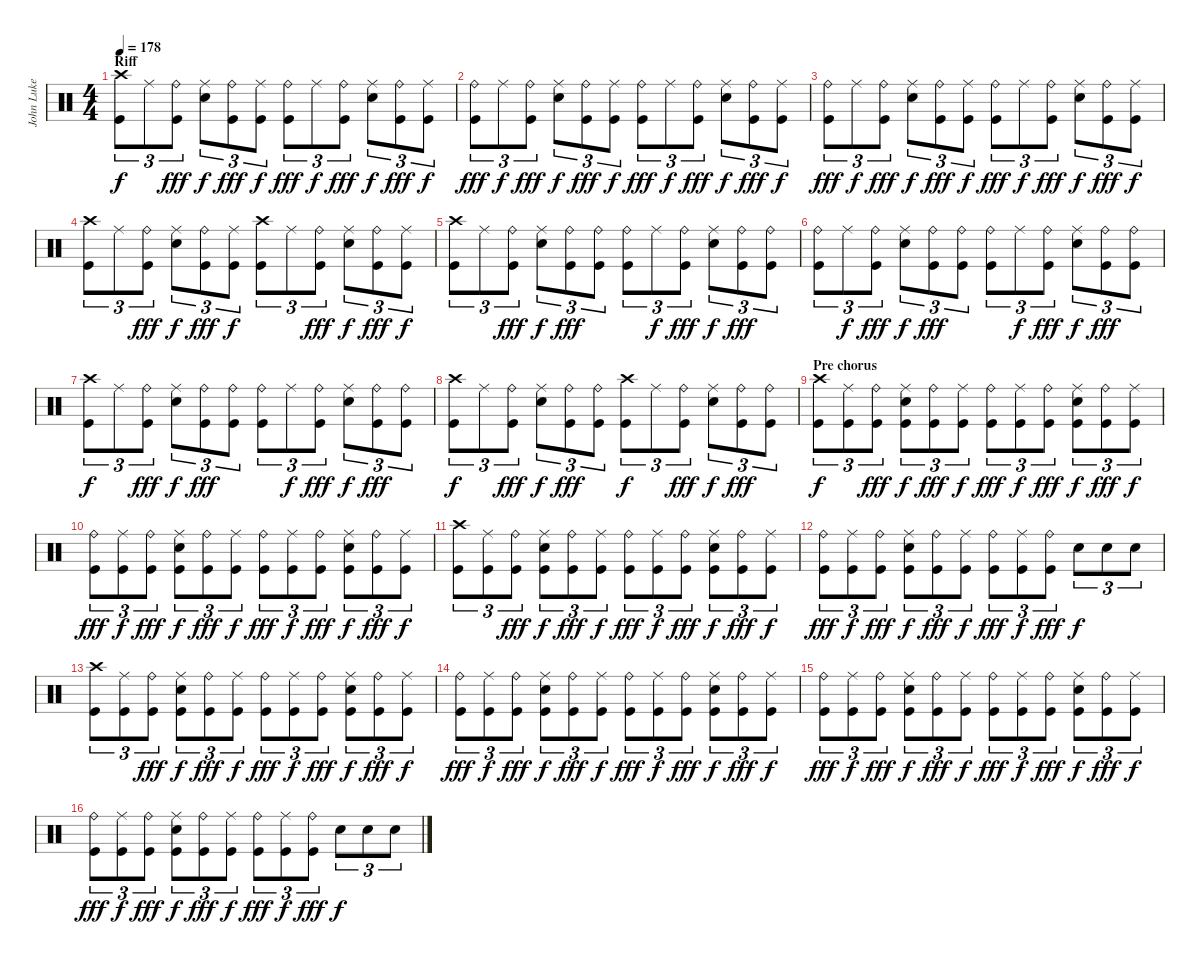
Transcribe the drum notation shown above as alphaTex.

\track ("John Luke (Drums)" "John Luke ") {instrument percussion}
\staff {score}
\articulation defaults
\ts (4 4)
\section ("" "Riff")
\tempo 178
\clef neutral
\ks c
("Crash high (hit)" "Kick (hit)").8{tu (3 2) dy f} "Ride (middle)".8{tu (3 2)} ("Ride (bell)" "Kick (hit)").8{tu (3 2) dy fff} ("Ride (middle)" "Electric Snare (hit)").8{tu (3 2) dy f} ("Ride (bell)" "Kick (hit)").8{tu (3 2) dy fff} ("Ride (middle)" "Kick (hit)").8{tu (3 2) dy f} ("Ride (bell)" "Kick (hit)").8{tu (3 2) dy fff} "Ride (middle)".8{tu (3 2) dy f} ("Ride (bell)" "Kick (hit)").8{tu (3 2) dy fff} ("Ride (middle)" "Electric Snare (hit)").8{tu (3 2) dy f} ("Ride (bell)" "Kick (hit)").8{tu (3 2) dy fff} ("Ride (middle)" "Kick (hit)").8{tu (3 2) dy f} |
("Ride (bell)" "Kick (hit)").8{tu (3 2) dy fff} "Ride (middle)".8{tu (3 2) dy f} ("Ride (bell)" "Kick (hit)").8{tu (3 2) dy fff} ("Ride (middle)" "Electric Snare (hit)").8{tu (3 2) dy f} ("Ride (bell)" "Kick (hit)").8{tu (3 2) dy fff} ("Ride (middle)" "Kick (hit)").8{tu (3 2) dy f} ("Ride (bell)" "Kick (hit)").8{tu (3 2) dy fff} "Ride (middle)".8{tu (3 2) dy f} ("Ride (bell)" "Kick (hit)").8{tu (3 2) dy fff} ("Ride (middle)" "Electric Snare (hit)").8{tu (3 2) dy f} ("Ride (bell)" "Kick (hit)").8{tu (3 2) dy fff} ("Ride (middle)" "Kick (hit)").8{tu (3 2) dy f} |
("Ride (bell)" "Kick (hit)").8{tu (3 2) dy fff} "Ride (middle)".8{tu (3 2) dy f} ("Ride (bell)" "Kick (hit)").8{tu (3 2) dy fff} ("Ride (middle)" "Electric Snare (hit)").8{tu (3 2) dy f} ("Ride (bell)" "Kick (hit)").8{tu (3 2) dy fff} ("Ride (middle)" "Kick (hit)").8{tu (3 2) dy f} ("Ride (bell)" "Kick (hit)").8{tu (3 2) dy fff} "Ride (middle)".8{tu (3 2) dy f} ("Ride (bell)" "Kick (hit)").8{tu (3 2) dy fff} ("Ride (middle)" "Electric Snare (hit)").8{tu (3 2) dy f} ("Ride (bell)" "Kick (hit)").8{tu (3 2) dy fff} ("Ride (middle)" "Kick (hit)").8{tu (3 2) dy f} |
("Crash high (hit)" "Kick (hit)").8{tu (3 2)} "Ride (middle)".8{tu (3 2)} ("Ride (bell)" "Kick (hit)").8{tu (3 2) dy fff} ("Ride (middle)" "Electric Snare (hit)").8{tu (3 2) dy f} ("Ride (bell)" "Kick (hit)").8{tu (3 2) dy fff} ("Ride (middle)" "Kick (hit)").8{tu (3 2) dy f} ("Crash high (hit)" "Kick (hit)").8{tu (3 2)} "Ride (middle)".8{tu (3 2)} ("Ride (bell)" "Kick (hit)").8{tu (3 2) dy fff} ("Ride (middle)" "Electric Snare (hit)").8{tu (3 2) dy f} ("Ride (bell)" "Kick (hit)").8{tu (3 2) dy fff} ("Ride (middle)" "Kick (hit)").8{tu (3 2) dy f} |
("Crash high (hit)" "Kick (hit)").8{tu (3 2)} "Ride (middle)".8{tu (3 2)} ("Ride (bell)" "Kick (hit)").8{tu (3 2) dy fff} ("Ride (middle)" "Electric Snare (hit)").8{tu (3 2) dy f} ("Ride (bell)" "Kick (hit)").8{tu (3 2) dy fff} ("Ride (bell)" "Kick (hit)").8{tu (3 2)} ("Ride (bell)" "Kick (hit)").8{tu (3 2)} "Ride (middle)".8{tu (3 2) dy f} ("Ride (bell)" "Kick (hit)").8{tu (3 2) dy fff} ("Ride (middle)" "Electric Snare (hit)").8{tu (3 2) dy f} ("Ride (bell)" "Kick (hit)").8{tu (3 2) dy fff} ("Ride (bell)" "Kick (hit)").8{tu (3 2)} |
("Ride (bell)" "Kick (hit)").8{tu (3 2)} "Ride (middle)".8{tu (3 2) dy f} ("Ride (bell)" "Kick (hit)").8{tu (3 2) dy fff} ("Ride (middle)" "Electric Snare (hit)").8{tu (3 2) dy f} ("Ride (bell)" "Kick (hit)").8{tu (3 2) dy fff} ("Ride (bell)" "Kick (hit)").8{tu (3 2)} ("Ride (bell)" "Kick (hit)").8{tu (3 2)} "Ride (middle)".8{tu (3 2) dy f} ("Ride (bell)" "Kick (hit)").8{tu (3 2) dy fff} ("Ride (middle)" "Electric Snare (hit)").8{tu (3 2) dy f} ("Ride (bell)" "Kick (hit)").8{tu (3 2) dy fff} ("Ride (bell)" "Kick (hit)").8{tu (3 2)} |
("Crash high (hit)" "Kick (hit)").8{tu (3 2) dy f} "Ride (middle)".8{tu (3 2)} ("Ride (bell)" "Kick (hit)").8{tu (3 2) dy fff} ("Ride (middle)" "Electric Snare (hit)").8{tu (3 2) dy f} ("Ride (bell)" "Kick (hit)").8{tu (3 2) dy fff} ("Ride (bell)" "Kick (hit)").8{tu (3 2)} ("Ride (bell)" "Kick (hit)").8{tu (3 2)} "Ride (middle)".8{tu (3 2) dy f} ("Ride (bell)" "Kick (hit)").8{tu (3 2) dy fff} ("Ride (middle)" "Electric Snare (hit)").8{tu (3 2) dy f} ("Ride (bell)" "Kick (hit)").8{tu (3 2) dy fff} ("Ride (bell)" "Kick (hit)").8{tu (3 2)} |
("Crash high (hit)" "Kick (hit)").8{tu (3 2) dy f} "Ride (middle)".8{tu (3 2)} ("Ride (bell)" "Kick (hit)").8{tu (3 2) dy fff} ("Ride (middle)" "Electric Snare (hit)").8{tu (3 2) dy f} ("Ride (bell)" "Kick (hit)").8{tu (3 2) dy fff} ("Ride (bell)" "Kick (hit)").8{tu (3 2)} ("Crash high (hit)" "Kick (hit)").8{tu (3 2) dy f} "Ride (middle)".8{tu (3 2)} ("Ride (bell)" "Kick (hit)").8{tu (3 2) dy fff} ("Ride (middle)" "Electric Snare (hit)").8{tu (3 2) dy f} ("Ride (bell)" "Kick (hit)").8{tu (3 2) dy fff} ("Ride (bell)" "Kick (hit)").8{tu (3 2)} |
\section ("" "Pre chorus")
("Crash high (hit)" "Kick (hit)").8{tu (3 2) dy f} ("Ride (middle)" "Kick (hit)").8{tu (3 2)} ("Ride (bell)" "Kick (hit)").8{tu (3 2) dy fff} ("Ride (middle)" "Electric Snare (hit)" "Kick (hit)").8{tu (3 2) dy f} ("Ride (bell)" "Kick (hit)").8{tu (3 2) dy fff} ("Ride (middle)" "Kick (hit)").8{tu (3 2) dy f} ("Ride (bell)" "Kick (hit)").8{tu (3 2) dy fff} ("Ride (middle)" "Kick (hit)").8{tu (3 2) dy f} ("Ride (bell)" "Kick (hit)").8{tu (3 2) dy fff} ("Ride (middle)" "Electric Snare (hit)" "Kick (hit)").8{tu (3 2) dy f} ("Ride (bell)" "Kick (hit)").8{tu (3 2) dy fff} ("Ride (middle)" "Kick (hit)").8{tu (3 2) dy f} |
("Ride (bell)" "Kick (hit)").8{tu (3 2) dy fff} ("Ride (middle)" "Kick (hit)").8{tu (3 2) dy f} ("Ride (bell)" "Kick (hit)").8{tu (3 2) dy fff} ("Ride (middle)" "Electric Snare (hit)" "Kick (hit)").8{tu (3 2) dy f} ("Ride (bell)" "Kick (hit)").8{tu (3 2) dy fff} ("Ride (middle)" "Kick (hit)").8{tu (3 2) dy f} ("Ride (bell)" "Kick (hit)").8{tu (3 2) dy fff} ("Ride (middle)" "Kick (hit)").8{tu (3 2) dy f} ("Ride (bell)" "Kick (hit)").8{tu (3 2) dy fff} ("Ride (middle)" "Electric Snare (hit)" "Kick (hit)").8{tu (3 2) dy f} ("Ride (bell)" "Kick (hit)").8{tu (3 2) dy fff} ("Ride (middle)" "Kick (hit)").8{tu (3 2) dy f} |
("Crash high (hit)" "Kick (hit)").8{tu (3 2)} ("Ride (middle)" "Kick (hit)").8{tu (3 2)} ("Ride (bell)" "Kick (hit)").8{tu (3 2) dy fff} ("Ride (middle)" "Electric Snare (hit)" "Kick (hit)").8{tu (3 2) dy f} ("Ride (bell)" "Kick (hit)").8{tu (3 2) dy fff} ("Ride (middle)" "Kick (hit)").8{tu (3 2) dy f} ("Ride (bell)" "Kick (hit)").8{tu (3 2) dy fff} ("Ride (middle)" "Kick (hit)").8{tu (3 2) dy f} ("Ride (bell)" "Kick (hit)").8{tu (3 2) dy fff} ("Ride (middle)" "Electric Snare (hit)" "Kick (hit)").8{tu (3 2) dy f} ("Ride (bell)" "Kick (hit)").8{tu (3 2) dy fff} ("Ride (middle)" "Kick (hit)").8{tu (3 2) dy f} |
("Ride (bell)" "Kick (hit)").8{tu (3 2) dy fff} ("Ride (middle)" "Kick (hit)").8{tu (3 2) dy f} ("Ride (bell)" "Kick (hit)").8{tu (3 2) dy fff} ("Ride (middle)" "Electric Snare (hit)" "Kick (hit)").8{tu (3 2) dy f} ("Ride (bell)" "Kick (hit)").8{tu (3 2) dy fff} ("Ride (middle)" "Kick (hit)").8{tu (3 2) dy f} ("Ride (bell)" "Kick (hit)").8{tu (3 2) dy fff} ("Ride (middle)" "Kick (hit)").8{tu (3 2) dy f} ("Ride (bell)" "Kick (hit)").8{tu (3 2) dy fff} "Electric Snare (hit)".8{tu (3 2) dy f} "Electric Snare (hit)".8{tu (3 2)} "Electric Snare (hit)".8{tu (3 2)} |
("Crash high (hit)" "Kick (hit)").8{tu (3 2)} ("Ride (middle)" "Kick (hit)").8{tu (3 2)} ("Ride (bell)" "Kick (hit)").8{tu (3 2) dy fff} ("Ride (middle)" "Electric Snare (hit)" "Kick (hit)").8{tu (3 2) dy f} ("Ride (bell)" "Kick (hit)").8{tu (3 2) dy fff} ("Ride (middle)" "Kick (hit)").8{tu (3 2) dy f} ("Ride (bell)" "Kick (hit)").8{tu (3 2) dy fff} ("Ride (middle)" "Kick (hit)").8{tu (3 2) dy f} ("Ride (bell)" "Kick (hit)").8{tu (3 2) dy fff} ("Ride (middle)" "Electric Snare (hit)" "Kick (hit)").8{tu (3 2) dy f} ("Ride (bell)" "Kick (hit)").8{tu (3 2) dy fff} ("Ride (middle)" "Kick (hit)").8{tu (3 2) dy f} |
("Ride (bell)" "Kick (hit)").8{tu (3 2) dy fff} ("Ride (middle)" "Kick (hit)").8{tu (3 2) dy f} ("Ride (bell)" "Kick (hit)").8{tu (3 2) dy fff} ("Ride (middle)" "Electric Snare (hit)" "Kick (hit)").8{tu (3 2) dy f} ("Ride (bell)" "Kick (hit)").8{tu (3 2) dy fff} ("Ride (middle)" "Kick (hit)").8{tu (3 2) dy f} ("Ride (bell)" "Kick (hit)").8{tu (3 2) dy fff} ("Ride (middle)" "Kick (hit)").8{tu (3 2) dy f} ("Ride (bell)" "Kick (hit)").8{tu (3 2) dy fff} ("Ride (middle)" "Electric Snare (hit)" "Kick (hit)").8{tu (3 2) dy f} ("Ride (bell)" "Kick (hit)").8{tu (3 2) dy fff} ("Ride (middle)" "Kick (hit)").8{tu (3 2) dy f} |
("Ride (bell)" "Kick (hit)").8{tu (3 2) dy fff} ("Ride (middle)" "Kick (hit)").8{tu (3 2) dy f} ("Ride (bell)" "Kick (hit)").8{tu (3 2) dy fff} ("Ride (middle)" "Electric Snare (hit)" "Kick (hit)").8{tu (3 2) dy f} ("Ride (bell)" "Kick (hit)").8{tu (3 2) dy fff} ("Ride (middle)" "Kick (hit)").8{tu (3 2) dy f} ("Ride (bell)" "Kick (hit)").8{tu (3 2) dy fff} ("Ride (middle)" "Kick (hit)").8{tu (3 2) dy f} ("Ride (bell)" "Kick (hit)").8{tu (3 2) dy fff} ("Ride (middle)" "Electric Snare (hit)" "Kick (hit)").8{tu (3 2) dy f} ("Ride (bell)" "Kick (hit)").8{tu (3 2) dy fff} ("Ride (middle)" "Kick (hit)").8{tu (3 2) dy f} |
("Ride (bell)" "Kick (hit)").8{tu (3 2) dy fff} ("Ride (middle)" "Kick (hit)").8{tu (3 2) dy f} ("Ride (bell)" "Kick (hit)").8{tu (3 2) dy fff} ("Ride (middle)" "Electric Snare (hit)" "Kick (hit)").8{tu (3 2) dy f} ("Ride (bell)" "Kick (hit)").8{tu (3 2) dy fff} ("Ride (middle)" "Kick (hit)").8{tu (3 2) dy f} ("Ride (bell)" "Kick (hit)").8{tu (3 2) dy fff} ("Ride (middle)" "Kick (hit)").8{tu (3 2) dy f} ("Ride (bell)" "Kick (hit)").8{tu (3 2) dy fff} "Electric Snare (hit)".8{tu (3 2) dy f} "Electric Snare (hit)".8{tu (3 2)} "Electric Snare (hit)".8{tu (3 2)}
